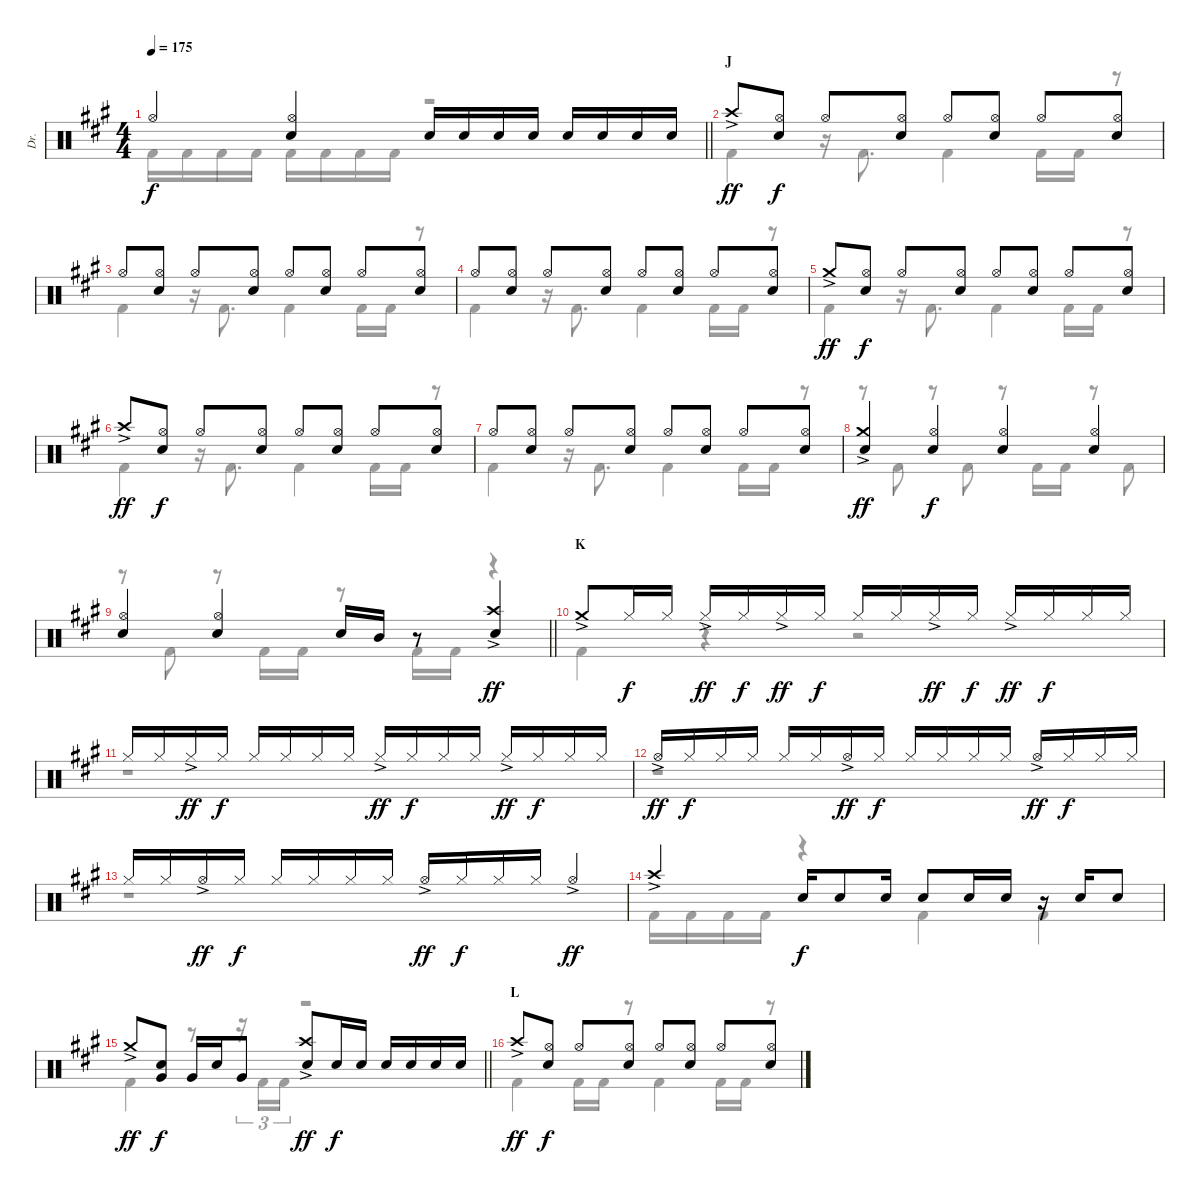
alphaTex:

\track ("Dr." "Dr.") {instrument percussion}
\staff {score}
\articulation defaults
\voice
\ts (4 4)
\tempo 175
\clef neutral
\barLineRight lightlight
\ks f#minor "Hi-Hat (open)".4{dy f}
("Hi-Hat (open)" "Electric Snare (hit)").4 "Electric Snare (hit)".16 "Electric Snare (hit)".16 "Electric Snare (hit)".16 "Electric Snare (hit)".16 "Electric Snare (hit)".16 "Electric Snare (hit)".16 "Electric Snare (hit)".16 "Electric Snare (hit)".16 |
\section ("" "J")
"Crash high (hit)"{ac}.8{dy ff} ("Hi-Hat (open)" "Electric Snare (hit)").8{dy f} "Hi-Hat (open)".8 ("Hi-Hat (open)" "Electric Snare (hit)").8 "Hi-Hat (open)".8 ("Hi-Hat (open)" "Electric Snare (hit)").8 "Hi-Hat (open)".8 ("Hi-Hat (open)" "Electric Snare (hit)").8 |
"Hi-Hat (open)".8 ("Hi-Hat (open)" "Electric Snare (hit)").8 "Hi-Hat (open)".8 ("Hi-Hat (open)" "Electric Snare (hit)").8 "Hi-Hat (open)".8 ("Hi-Hat (open)" "Electric Snare (hit)").8 "Hi-Hat (open)".8 ("Hi-Hat (open)" "Electric Snare (hit)").8 |
"Hi-Hat (open)".8 ("Hi-Hat (open)" "Electric Snare (hit)").8 "Hi-Hat (open)".8 ("Hi-Hat (open)" "Electric Snare (hit)").8 "Hi-Hat (open)".8 ("Hi-Hat (open)" "Electric Snare (hit)").8 "Hi-Hat (open)".8 ("Hi-Hat (open)" "Electric Snare (hit)").8 |
"Crash medium (hit)"{ac}.8{dy ff} ("Hi-Hat (open)" "Electric Snare (hit)").8{dy f} "Hi-Hat (open)".8 ("Hi-Hat (open)" "Electric Snare (hit)").8 "Hi-Hat (open)".8 ("Hi-Hat (open)" "Electric Snare (hit)").8 "Hi-Hat (open)".8 ("Hi-Hat (open)" "Electric Snare (hit)").8 |
"Crash high (hit)"{ac}.8{dy ff} ("Hi-Hat (open)" "Electric Snare (hit)").8{dy f} "Hi-Hat (open)".8 ("Hi-Hat (open)" "Electric Snare (hit)").8 "Hi-Hat (open)".8 ("Hi-Hat (open)" "Electric Snare (hit)").8 "Hi-Hat (open)".8 ("Hi-Hat (open)" "Electric Snare (hit)").8 |
"Hi-Hat (open)".8 ("Hi-Hat (open)" "Electric Snare (hit)").8 "Hi-Hat (open)".8 ("Hi-Hat (open)" "Electric Snare (hit)").8 "Hi-Hat (open)".8 ("Hi-Hat (open)" "Electric Snare (hit)").8 "Hi-Hat (open)".8 ("Hi-Hat (open)" "Electric Snare (hit)").8 |
("Crash medium (hit)"{ac} "Electric Snare (hit)").4{dy ff} ("Hi-Hat (open)" "Electric Snare (hit)").4{dy f} ("Hi-Hat (open)" "Electric Snare (hit)").4 ("Hi-Hat (open)" "Electric Snare (hit)").4 |
\barLineRight lightlight
("Hi-Hat (open)" "Electric Snare (hit)").4 ("Hi-Hat (open)" "Electric Snare (hit)").4 "Electric Snare (hit)".16 "Mid Tom (hit)".16 r.8 ("Crash high (hit)"{ac} "Electric Snare (hit)").4{dy ff} |
\section ("" "K")
"Crash medium (hit)"{ac}.8 "Hi-Hat (closed)".16{dy f} "Hi-Hat (closed)".16 "Hi-Hat (closed)"{ac}.16{dy ff} "Hi-Hat (closed)".16{dy f} "Hi-Hat (closed)"{ac}.16{dy ff} "Hi-Hat (closed)".16{dy f} "Hi-Hat (closed)".16 "Hi-Hat (closed)".16 "Hi-Hat (closed)"{ac}.16{dy ff} "Hi-Hat (closed)".16{dy f} "Hi-Hat (closed)"{ac}.16{dy ff} "Hi-Hat (closed)".16{dy f} "Hi-Hat (closed)".16 "Hi-Hat (closed)".16 |
"Hi-Hat (closed)".16 "Hi-Hat (closed)".16 "Hi-Hat (closed)"{ac}.16{dy ff} "Hi-Hat (closed)".16{dy f} "Hi-Hat (closed)".16 "Hi-Hat (closed)".16 "Hi-Hat (closed)".16 "Hi-Hat (closed)".16 "Hi-Hat (closed)"{ac}.16{dy ff} "Hi-Hat (closed)".16{dy f} "Hi-Hat (closed)".16 "Hi-Hat (closed)".16 "Hi-Hat (closed)"{ac}.16{dy ff} "Hi-Hat (closed)".16{dy f} "Hi-Hat (closed)".16 "Hi-Hat (closed)".16 |
"Hi-Hat (open)"{ac}.16{dy ff} "Hi-Hat (closed)".16{dy f} "Hi-Hat (closed)".16 "Hi-Hat (closed)".16 "Hi-Hat (closed)".16 "Hi-Hat (closed)".16 "Hi-Hat (open)"{ac}.16{dy ff} "Hi-Hat (closed)".16{dy f} "Hi-Hat (closed)".16 "Hi-Hat (closed)".16 "Hi-Hat (closed)".16 "Hi-Hat (closed)".16 "Hi-Hat (open)"{ac}.16{dy ff} "Hi-Hat (closed)".16{dy f} "Hi-Hat (closed)".16 "Hi-Hat (closed)".16 |
"Hi-Hat (closed)".16 "Hi-Hat (closed)".16 "Hi-Hat (open)"{ac}.16{dy ff} "Hi-Hat (closed)".16{dy f} "Hi-Hat (closed)".16 "Hi-Hat (closed)".16 "Hi-Hat (closed)".16 "Hi-Hat (closed)".16 "Hi-Hat (open)"{ac}.16{dy ff} "Hi-Hat (closed)".16{dy f} "Hi-Hat (closed)".16 "Hi-Hat (closed)".16 "Hi-Hat (open)"{ac}.4{dy ff} |
"Crash high (hit)"{ac}.4 "Electric Snare (hit)".16{dy f} "Electric Snare (hit)".8 "Electric Snare (hit)".16 "Electric Snare (hit)".8 "Electric Snare (hit)".16 "Electric Snare (hit)".16 r.16 "Electric Snare (hit)".16 "Electric Snare (hit)".8 |
\barLineRight lightlight "Crash medium (hit)"{ac}.8{dy ff}
("Electric Snare (hit)" "Very Low Tom (hit)").8{dy f} "Very Low Tom (hit)".16 "Electric Snare (hit)".16 "Very Low Tom (hit)".8 ("Crash high (hit)"{ac} "Electric Snare (hit)").8{dy ff} "Electric Snare (hit)".16{dy f} "Electric Snare (hit)".16 "Electric Snare (hit)".16 "Electric Snare (hit)".16 "Electric Snare (hit)".16 "Electric Snare (hit)".16 |
\section ("" "L")
"Crash high (hit)"{ac}.8{dy ff} ("Hi-Hat (open)" "Electric Snare (hit)").8{dy f} "Hi-Hat (open)".8 ("Hi-Hat (open)" "Electric Snare (hit)").8 "Hi-Hat (open)".8 ("Hi-Hat (open)" "Electric Snare (hit)").8 "Hi-Hat (open)".8 ("Hi-Hat (open)" "Electric Snare (hit)").8
\voice
\clef neutral
\ottava regular
\simile none
\barLineRight lightlight
\ks f#minor "Kick (hit) 2".16{dy f} "Kick (hit) 2".16 "Kick (hit) 2".16 "Kick (hit) 2".16 "Kick (hit) 2".16 "Kick (hit) 2".16 "Kick (hit) 2".16 "Kick (hit) 2".16
r.2 |
"Kick (hit) 2".4 r.16 "Kick (hit) 2".8{d} "Kick (hit) 2".4 "Kick (hit) 2".16 "Kick (hit) 2".16 r.8 |
"Kick (hit) 2".4 r.16 "Kick (hit) 2".8{d} "Kick (hit) 2".4 "Kick (hit) 2".16 "Kick (hit) 2".16 r.8 |
"Kick (hit) 2".4 r.16 "Kick (hit) 2".8{d} "Kick (hit) 2".4 "Kick (hit) 2".16 "Kick (hit) 2".16 r.8 |
"Kick (hit) 2".4 r.16 "Kick (hit) 2".8{d} "Kick (hit) 2".4 "Kick (hit) 2".16 "Kick (hit) 2".16 r.8 |
"Kick (hit) 2".4 r.16 "Kick (hit) 2".8{d} "Kick (hit) 2".4 "Kick (hit) 2".16 "Kick (hit) 2".16 r.8 |
"Kick (hit) 2".4 r.16 "Kick (hit) 2".8{d} "Kick (hit) 2".4 "Kick (hit) 2".16 "Kick (hit) 2".16 r.8 |
r.8 "Kick (hit) 2".8 r.8 "Kick (hit) 2".8 r.8 "Kick (hit) 2".16 "Kick (hit) 2".16 r.8 "Kick (hit) 2".8 |
\barLineRight lightlight
r.8 "Kick (hit) 2".8 r.8 "Kick (hit) 2".16 "Kick (hit) 2".16 r.8 "Kick (hit) 2".16 "Kick (hit) 2".16 r.4 |
"Kick (hit) 2".4 r.4 r.2 |
r.1 |
r.1 |
r.1 |
"Kick (hit) 2".16 "Kick (hit) 2".16 "Kick (hit) 2".16 "Kick (hit) 2".16 r.4 "Kick (hit) 2".4 "Kick (hit) 2".4 |
\barLineRight lightlight "Kick (hit) 2".4
r.8 r.16{tu (3 2)} "Kick (hit) 2".16{tu (3 2)} "Kick (hit) 2".16{tu (3 2)} r.2 |
"Kick (hit) 2".4 "Kick (hit) 2".16 "Kick (hit) 2".16 r.8 "Kick (hit) 2".4 "Kick (hit) 2".16 "Kick (hit) 2".16 r.8
